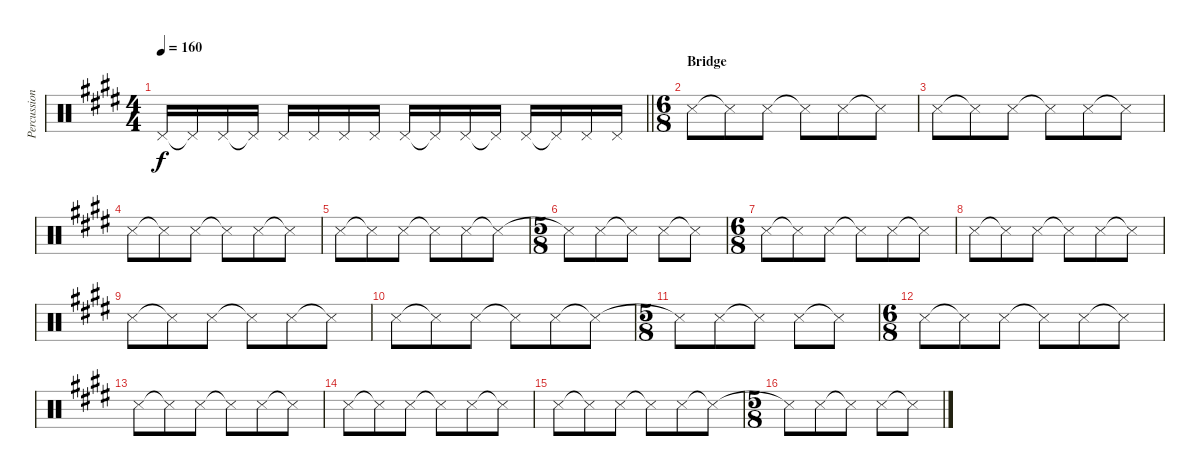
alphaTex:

\track ("Percussion" "Percussion") {instrument percussion}
\staff {score}
\articulation defaults
\ts (4 4)
\tempo 160
\clef neutral
\barLineRight lightlight
\ks c#minor "Pedal Hi-Hat (hit)".16{dy f} "Pedal Hi-Hat (hit)"{t}.16 "Pedal Hi-Hat (hit)".16 "Pedal Hi-Hat (hit)"{t}.16 "Pedal Hi-Hat (hit)".16 "Pedal Hi-Hat (hit)".16 "Pedal Hi-Hat (hit)".16 "Pedal Hi-Hat (hit)".16 "Pedal Hi-Hat (hit)".16 "Pedal Hi-Hat (hit)"{t}.16 "Pedal Hi-Hat (hit)".16 "Pedal Hi-Hat (hit)"{t}.16 "Pedal Hi-Hat (hit)".16 "Pedal Hi-Hat (hit)"{t}.16 "Pedal Hi-Hat (hit)".16 "Pedal Hi-Hat (hit)".16
|
\ts (6 8)
\section ("" "Bridge")
"Snare (side stick) 3".8{volume 13} "Snare (side stick) 3"{t}.8 "Snare (side stick) 3".8 "Snare (side stick) 3"{t}.8 "Snare (side stick) 3".8 "Snare (side stick) 3"{t}.8 |
"Snare (side stick) 3".8{volume 13} "Snare (side stick) 3"{t}.8 "Snare (side stick) 3".8 "Snare (side stick) 3"{t}.8 "Snare (side stick) 3".8 "Snare (side stick) 3"{t}.8 |
"Snare (side stick) 3".8{volume 13} "Snare (side stick) 3"{t}.8 "Snare (side stick) 3".8 "Snare (side stick) 3"{t}.8 "Snare (side stick) 3".8 "Snare (side stick) 3"{t}.8 |
"Snare (side stick) 3".8{volume 13} "Snare (side stick) 3"{t}.8 "Snare (side stick) 3".8 "Snare (side stick) 3"{t}.8 "Snare (side stick) 3".8 "Snare (side stick) 3"{t}.8 |
\ts (5 8)
"Snare (side stick) 3"{t}.8 "Snare (side stick) 3".8 "Snare (side stick) 3"{t}.8 "Snare (side stick) 3".8 "Snare (side stick) 3"{t}.8 |
\ts (6 8)
"Snare (side stick) 3".8{volume 13} "Snare (side stick) 3"{t}.8 "Snare (side stick) 3".8 "Snare (side stick) 3"{t}.8 "Snare (side stick) 3".8 "Snare (side stick) 3"{t}.8 |
"Snare (side stick) 3".8{volume 13} "Snare (side stick) 3"{t}.8 "Snare (side stick) 3".8 "Snare (side stick) 3"{t}.8 "Snare (side stick) 3".8 "Snare (side stick) 3"{t}.8 |
"Snare (side stick) 3".8{volume 13} "Snare (side stick) 3"{t}.8 "Snare (side stick) 3".8 "Snare (side stick) 3"{t}.8 "Snare (side stick) 3".8 "Snare (side stick) 3"{t}.8 |
"Snare (side stick) 3".8{volume 13} "Snare (side stick) 3"{t}.8 "Snare (side stick) 3".8 "Snare (side stick) 3"{t}.8 "Snare (side stick) 3".8 "Snare (side stick) 3"{t}.8 |
\ts (5 8)
"Snare (side stick) 3"{t}.8 "Snare (side stick) 3".8 "Snare (side stick) 3"{t}.8 "Snare (side stick) 3".8 "Snare (side stick) 3"{t}.8 |
\ts (6 8)
"Snare (side stick) 3".8{volume 13} "Snare (side stick) 3"{t}.8 "Snare (side stick) 3".8 "Snare (side stick) 3"{t}.8 "Snare (side stick) 3".8 "Snare (side stick) 3"{t}.8 |
"Snare (side stick) 3".8{volume 13} "Snare (side stick) 3"{t}.8 "Snare (side stick) 3".8 "Snare (side stick) 3"{t}.8 "Snare (side stick) 3".8 "Snare (side stick) 3"{t}.8 |
"Snare (side stick) 3".8{volume 13} "Snare (side stick) 3"{t}.8 "Snare (side stick) 3".8 "Snare (side stick) 3"{t}.8 "Snare (side stick) 3".8 "Snare (side stick) 3"{t}.8 |
"Snare (side stick) 3".8{volume 13} "Snare (side stick) 3"{t}.8 "Snare (side stick) 3".8 "Snare (side stick) 3"{t}.8 "Snare (side stick) 3".8 "Snare (side stick) 3"{t}.8 |
\ts (5 8)
"Snare (side stick) 3"{t}.8 "Snare (side stick) 3".8 "Snare (side stick) 3"{t}.8 "Snare (side stick) 3".8 "Snare (side stick) 3"{t}.8
